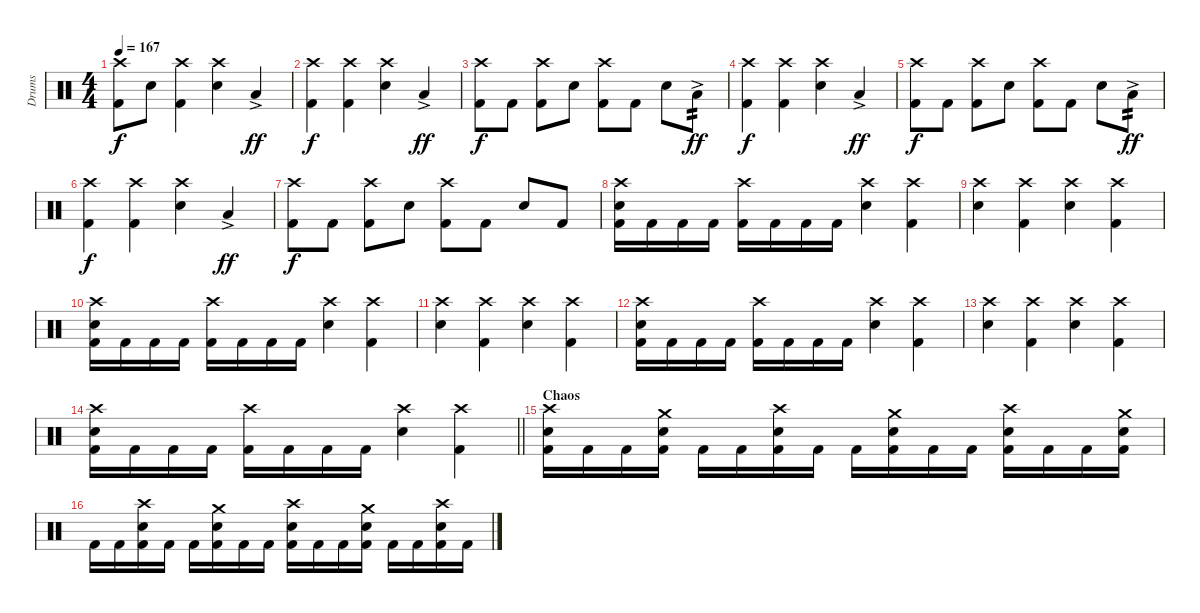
\track ("Drums" "Drums") {instrument percussion}
\staff {score}
\articulation defaults
\ts (4 4)
\tempo 167
\clef neutral
\ks c
("Crash high (hit)" "Kick (hit) 2").8{dy f} "Snare (hit) 2".8 ("Crash high (hit)" "Kick (hit) 2").4 ("Crash high (hit)" "Snare (hit) 2").4 "Low Floor Tom (hit)"{ac}.4{dy ff} |
("Crash high (hit)" "Kick (hit) 2").4{dy f} ("Crash high (hit)" "Kick (hit) 2").4 ("Crash high (hit)" "Snare (hit) 2").4 "Low Floor Tom (hit)"{ac}.4{dy ff} |
("Crash high (hit)" "Kick (hit) 2").8{dy f} "Kick (hit) 2".8 ("Crash high (hit)" "Kick (hit) 2").8 "Snare (hit) 2".8 ("Crash high (hit)" "Kick (hit) 2").8 "Kick (hit) 2".8 "Snare (hit) 2".8 "Low Floor Tom (hit)"{ac}.8{tp 2 dy ff} |
("Crash high (hit)" "Kick (hit) 2").4{dy f} ("Crash high (hit)" "Kick (hit) 2").4 ("Crash high (hit)" "Snare (hit) 2").4 "Low Floor Tom (hit)"{ac}.4{dy ff} |
("Crash high (hit)" "Kick (hit) 2").8{dy f} "Kick (hit) 2".8 ("Crash high (hit)" "Kick (hit) 2").8 "Snare (hit) 2".8 ("Crash high (hit)" "Kick (hit) 2").8 "Kick (hit) 2".8 "Snare (hit) 2".8 "Low Floor Tom (hit)"{ac}.8{tp 2 dy ff} |
("Crash high (hit)" "Kick (hit) 2").4{dy f} ("Crash high (hit)" "Kick (hit) 2").4 ("Crash high (hit)" "Snare (hit) 2").4 "Low Floor Tom (hit)"{ac}.4{dy ff} |
("Crash high (hit)" "Kick (hit) 2").8{dy f} "Kick (hit) 2".8 ("Crash high (hit)" "Kick (hit) 2").8 "Snare (hit) 2".8 ("Crash high (hit)" "Kick (hit) 2").8 "Kick (hit) 2".8 "Snare (hit) 2".8 "Kick (hit) 2".8 |
("Crash high (hit)" "Snare (hit) 2" "Kick (hit) 2").16 "Kick (hit) 2".16 "Kick (hit) 2".16 "Kick (hit) 2".16 ("Crash high (hit)" "Kick (hit) 2").16 "Kick (hit) 2".16 "Kick (hit) 2".16 "Kick (hit) 2".16 ("Crash high (hit)" "Snare (hit) 2").4 ("Crash high (hit)" "Kick (hit) 2").4 |
("Crash high (hit)" "Snare (hit) 2").4 ("Crash high (hit)" "Kick (hit) 2").4 ("Crash high (hit)" "Snare (hit) 2").4 ("Crash high (hit)" "Kick (hit) 2").4 |
("Crash high (hit)" "Snare (hit) 2" "Kick (hit) 2").16 "Kick (hit) 2".16 "Kick (hit) 2".16 "Kick (hit) 2".16 ("Crash high (hit)" "Kick (hit) 2").16 "Kick (hit) 2".16 "Kick (hit) 2".16 "Kick (hit) 2".16 ("Crash high (hit)" "Snare (hit) 2").4 ("Crash high (hit)" "Kick (hit) 2").4 |
("Crash high (hit)" "Snare (hit) 2").4 ("Crash high (hit)" "Kick (hit) 2").4 ("Crash high (hit)" "Snare (hit) 2").4 ("Crash high (hit)" "Kick (hit) 2").4 |
("Crash high (hit)" "Snare (hit) 2" "Kick (hit) 2").16 "Kick (hit) 2".16 "Kick (hit) 2".16 "Kick (hit) 2".16 ("Crash high (hit)" "Kick (hit) 2").16 "Kick (hit) 2".16 "Kick (hit) 2".16 "Kick (hit) 2".16 ("Crash high (hit)" "Snare (hit) 2").4 ("Crash high (hit)" "Kick (hit) 2").4 |
("Crash high (hit)" "Snare (hit) 2").4 ("Crash high (hit)" "Kick (hit) 2").4 ("Crash high (hit)" "Snare (hit) 2").4 ("Crash high (hit)" "Kick (hit) 2").4 |
\barLineRight lightlight
("Crash high (hit)" "Snare (hit) 2" "Kick (hit) 2").16 "Kick (hit) 2".16 "Kick (hit) 2".16 "Kick (hit) 2".16 ("Crash high (hit)" "Kick (hit) 2").16 "Kick (hit) 2".16 "Kick (hit) 2".16 "Kick (hit) 2".16 ("Crash high (hit)" "Snare (hit) 2").4 ("Crash high (hit)" "Kick (hit) 2").4 |
\section ("" "Chaos")
("Crash high (hit)" "Snare (hit) 2" "Kick (hit) 2").16 "Kick (hit) 2".16 "Kick (hit) 2".16 ("Crash medium (hit)" "Snare (hit) 2" "Kick (hit) 2").16 "Kick (hit) 2".16 "Kick (hit) 2".16 ("Crash high (hit)" "Snare (hit) 2" "Kick (hit) 2").16 "Kick (hit) 2".16 "Kick (hit) 2".16 ("Crash medium (hit)" "Snare (hit) 2" "Kick (hit) 2").16 "Kick (hit) 2".16 "Kick (hit) 2".16 ("Crash high (hit)" "Snare (hit) 2" "Kick (hit) 2").16 "Kick (hit) 2".16 "Kick (hit) 2".16 ("Crash medium (hit)" "Snare (hit) 2" "Kick (hit) 2").16 |
"Kick (hit) 2".16 "Kick (hit) 2".16 ("Crash high (hit)" "Snare (hit) 2" "Kick (hit) 2").16 "Kick (hit) 2".16 "Kick (hit) 2".16 ("Crash medium (hit)" "Snare (hit) 2" "Kick (hit) 2").16 "Kick (hit) 2".16 "Kick (hit) 2".16 ("Crash high (hit)" "Snare (hit) 2" "Kick (hit) 2").16 "Kick (hit) 2".16 "Kick (hit) 2".16 ("Crash medium (hit)" "Snare (hit) 2" "Kick (hit) 2").16 "Kick (hit) 2".16 "Kick (hit) 2".16 ("Crash high (hit)" "Snare (hit) 2" "Kick (hit) 2").16 "Kick (hit) 2".16
